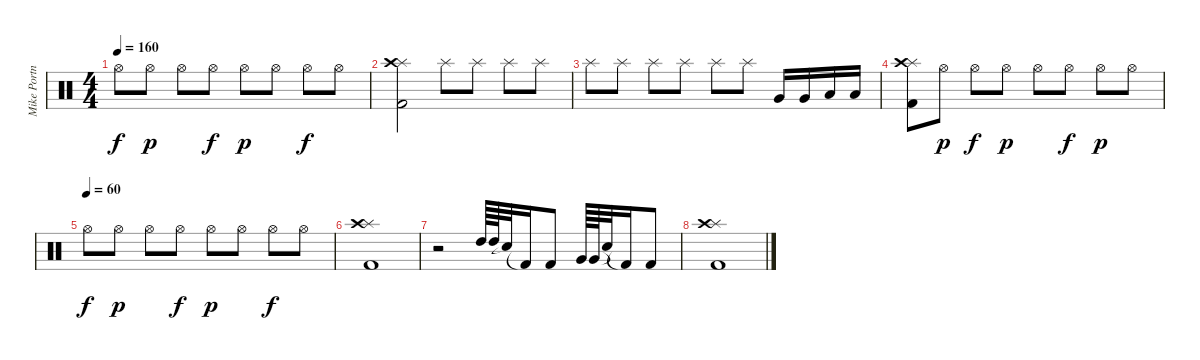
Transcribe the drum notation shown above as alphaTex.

\track ("Mike Portnoy" "Mike Portn") {instrument percussion}
\staff {score}
\articulation defaults
\ts (4 4)
\tempo 160
\clef neutral
\ks c "Hi-Hat (open)".8{dy f} "Hi-Hat (open)".8{dy p} "Hi-Hat (open)".8 "Hi-Hat (open)".8{dy f} "Hi-Hat (open)".8{dy p} "Hi-Hat (open)".8 "Hi-Hat (open)".8{dy f} "Hi-Hat (open)".8
|
("Kick (hit) 2" "Splash (hit)" "Crash high (hit)").2 "Splash (hit)".8 "Splash (hit)".8 "Splash (hit)".8 "Splash (hit)".8 |
"Splash (hit)".8 "Splash (hit)".8 "Splash (hit)".8 "Splash (hit)".8 "Splash (hit)".8 "Splash (hit)".8 "Very Low Tom (hit)".16 "Very Low Tom (hit)".16 "Low Floor Tom (hit)".16 "Low Floor Tom (hit)".16 |
("Kick (hit) 2" "Splash (hit)" "Crash high (hit)").8 "Hi-Hat (open)".8{dy p} "Hi-Hat (open)".8{dy f} "Hi-Hat (open)".8{dy p} "Hi-Hat (open)".8 "Hi-Hat (open)".8{dy f} "Hi-Hat (open)".8{dy p} "Hi-Hat (open)".8 |
\tempo (60)
"Hi-Hat (open)".8{dy f} "Hi-Hat (open)".8{dy p} "Hi-Hat (open)".8 "Hi-Hat (open)".8{dy f} "Hi-Hat (open)".8{dy p} "Hi-Hat (open)".8 "Hi-Hat (open)".8{dy f} "Hi-Hat (open)".8 |
("Kick (hit) 2" "Splash (hit)" "Crash high (hit)").1 |
r.2 "High Tom (hit)".64 "High Tom (hit)".64 "Snare (hit)"{t}.32 "Kick (hit) 2"{t}.16 "Kick (hit) 2".8 "Very Low Tom (hit)".64 "Very Low Tom (hit)".64 "Snare (hit)"{t}.32 "Kick (hit) 2"{t}.16 "Kick (hit) 2".8 |
("Kick (hit) 2" "Splash (hit)" "Crash high (hit)").1
